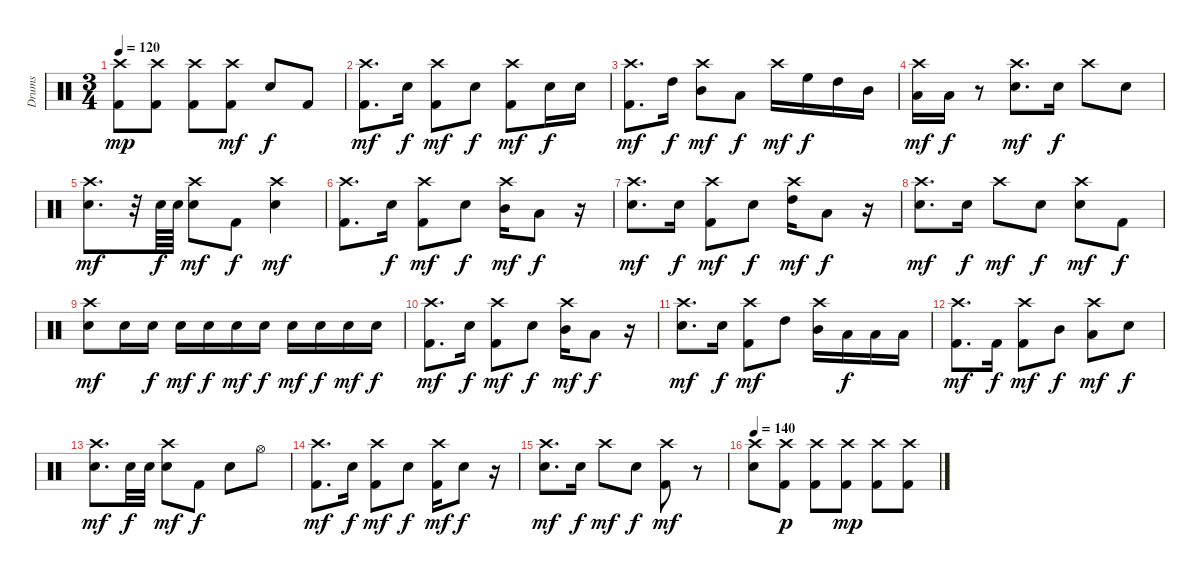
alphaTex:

\track ("Drums" "Drums") {instrument percussion}
\staff {score}
\articulation defaults
\ts (3 4)
\tempo 120
\clef neutral
\ks c
("Crash high (hit)" "Kick (hit) 2").8{dy mp} ("Crash high (hit)" "Kick (hit) 2").8 ("Crash high (hit)" "Kick (hit) 2").8 ("Crash high (hit)" "Kick (hit) 2").8{dy mf} "Snare (hit) 2".8{dy f} "Kick (hit) 2".8 |
("Crash high (hit)" "Kick (hit) 2").8{d dy mf} "Snare (hit) 2".16{dy f} ("Crash high (hit)" "Kick (hit) 2").8{dy mf} "Snare (hit) 2".8{dy f} ("Crash high (hit)" "Kick (hit) 2").8{dy mf} "Snare (hit) 2".16{dy f} "Snare (hit) 2".16 |
("Crash high (hit)" "Kick (hit) 2").8{d dy mf} "High Tom (hit)".16{dy f} ("Crash high (hit)" "Mid Tom (hit)").8{dy mf} "Low Tom (hit)".8{dy f} "Crash high (hit)".16{dy mf} "High Floor Tom (hit)".16{dy f} "High Tom (hit)".16 "Mid Tom (hit)".16 |
("Crash high (hit)" "Low Tom (hit)").16{dy mf} "Low Tom (hit)".16{dy f} r.8 ("Crash high (hit)" "Snare (hit) 2").8{d dy mf} "Snare (hit) 2".16{dy f} "Crash high (hit)".8 "Snare (hit) 2".8 |
("Crash high (hit)" "Snare (hit) 2").8{d dy mf} r.32 "Snare (hit) 2".64{dy f} "Snare (hit) 2".64 ("Crash high (hit)" "Snare (hit) 2").8{dy mf} "Kick (hit) 2".8{dy f} ("Crash high (hit)" "Snare (hit) 2").4{dy mf} |
("Crash high (hit)" "Kick (hit) 2").8{d} "Snare (hit) 2".16{dy f} ("Crash high (hit)" "Kick (hit) 2").8{dy mf} "Snare (hit) 2".8{dy f} ("Crash high (hit)" "Mid Tom (hit)").16{dy mf} "Low Tom (hit)".8{dy f} r.16 |
("Crash high (hit)" "Snare (hit) 2").8{d dy mf} "Snare (hit) 2".16{dy f} ("Crash high (hit)" "Kick (hit) 2").8{dy mf} "Snare (hit) 2".8{dy f} ("Crash high (hit)" "High Tom (hit)").16{dy mf} "Low Tom (hit)".8{dy f} r.16 |
("Crash high (hit)" "Snare (hit) 2").8{d dy mf} "Snare (hit) 2".16{dy f} "Crash high (hit)".8{dy mf} "Snare (hit) 2".8{dy f} ("Crash high (hit)" "Snare (hit) 2").8{dy mf} "Kick (hit) 2".8{dy f} |
("Crash high (hit)" "Snare (hit) 2").8{dy mf} "Snare (hit) 2".16 "Snare (hit) 2".16{dy f} "Snare (hit) 2".16{dy mf} "Snare (hit) 2".16{dy f} "Snare (hit) 2".16{dy mf} "Snare (hit) 2".16{dy f} "Snare (hit) 2".16{dy mf} "Snare (hit) 2".16{dy f} "Snare (hit) 2".16{dy mf} "Snare (hit) 2".16{dy f} |
("Crash high (hit)" "Kick (hit) 2").8{d dy mf} "Snare (hit) 2".16{dy f} ("Crash high (hit)" "Kick (hit) 2").8{dy mf} "Snare (hit) 2".8{dy f} ("Crash high (hit)" "Mid Tom (hit)").16{dy mf} "Low Tom (hit)".8{dy f} r.16 |
("Crash high (hit)" "Snare (hit) 2").8{d dy mf} "Snare (hit) 2".16{dy f} ("Crash high (hit)" "Kick (hit) 2").8{dy mf} "High Tom (hit)".8 ("Crash high (hit)" "Mid Tom (hit)").16 "Low Tom (hit)".16{dy f} "Low Tom (hit)".16 "Low Tom (hit)".16 |
("Crash high (hit)" "Kick (hit) 2").8{d dy mf} "Kick (hit) 2".16{dy f} ("Crash high (hit)" "Kick (hit) 2").8{dy mf} "Mid Tom (hit)".8{dy f} ("Crash high (hit)" "Low Tom (hit)").8{dy mf} "Snare (hit) 2".8{dy f} |
("Crash high (hit)" "Snare (hit) 2").8{d dy mf} "Snare (hit) 2".32{dy f} "Snare (hit) 2".32 ("Crash high (hit)" "Snare (hit) 2").8{dy mf} "Kick (hit) 2".8{dy f} "Snare (hit) 2".8 "Hi-Hat (open)".8 |
("Crash high (hit)" "Kick (hit) 2").8{d dy mf} "Snare (hit) 2".16{dy f} ("Crash high (hit)" "Kick (hit) 2").8{dy mf} "Snare (hit) 2".8{dy f} ("Crash high (hit)" "Kick (hit) 2").16{dy mf} "Snare (hit) 2".8{dy f} r.16 |
("Crash high (hit)" "Snare (hit) 2").8{d dy mf} "Snare (hit) 2".16{dy f} "Crash high (hit)".8{dy mf} "Snare (hit) 2".8{dy f} ("Crash high (hit)" "Kick (hit) 2").8{dy mf} r.8 |
\tempo 140
("Crash high (hit)" "Snare (hit) 2").8 ("Crash high (hit)" "Kick (hit) 2").8{dy p} ("Crash high (hit)" "Kick (hit) 2").8 ("Crash high (hit)" "Kick (hit) 2").8{dy mp} ("Crash high (hit)" "Kick (hit) 2").8 ("Crash high (hit)" "Kick (hit) 2").8
